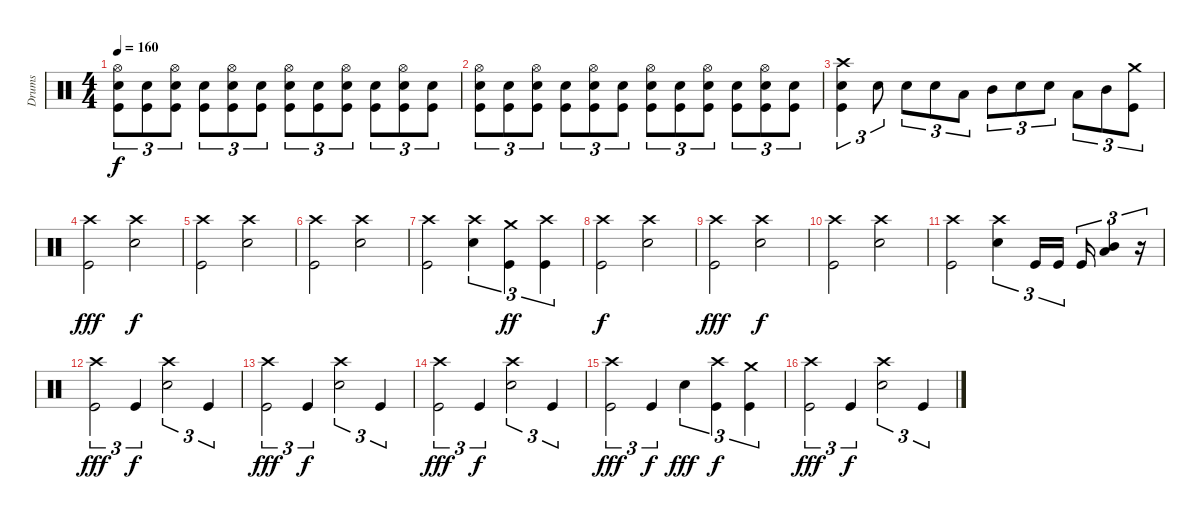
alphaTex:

\track ("Drums" "Drums") {instrument percussion}
\staff {score}
\articulation defaults
\ts (4 4)
\tempo 160
\clef neutral
\ks c
("Hi-Hat (open)" "Electric Snare (hit)" "Kick (hit)").8{tu (3 2) dy f} ("Electric Snare (hit)" "Kick (hit)").8{tu (3 2)} ("Hi-Hat (open)" "Electric Snare (hit)" "Kick (hit)").8{tu (3 2)} ("Electric Snare (hit)" "Kick (hit)").8{tu (3 2)} ("Hi-Hat (open)" "Electric Snare (hit)" "Kick (hit)").8{tu (3 2)} ("Electric Snare (hit)" "Kick (hit)").8{tu (3 2)} ("Hi-Hat (open)" "Electric Snare (hit)" "Kick (hit)").8{tu (3 2)} ("Electric Snare (hit)" "Kick (hit)").8{tu (3 2)} ("Hi-Hat (open)" "Electric Snare (hit)" "Kick (hit)").8{tu (3 2)} ("Electric Snare (hit)" "Kick (hit)").8{tu (3 2)} ("Hi-Hat (open)" "Electric Snare (hit)" "Kick (hit)").8{tu (3 2)} ("Electric Snare (hit)" "Kick (hit)").8{tu (3 2)} |
("Hi-Hat (open)" "Electric Snare (hit)" "Kick (hit)").8{tu (3 2)} ("Electric Snare (hit)" "Kick (hit)").8{tu (3 2)} ("Hi-Hat (open)" "Electric Snare (hit)" "Kick (hit)").8{tu (3 2)} ("Electric Snare (hit)" "Kick (hit)").8{tu (3 2)} ("Hi-Hat (open)" "Electric Snare (hit)" "Kick (hit)").8{tu (3 2)} ("Electric Snare (hit)" "Kick (hit)").8{tu (3 2)} ("Hi-Hat (open)" "Electric Snare (hit)" "Kick (hit)").8{tu (3 2)} ("Electric Snare (hit)" "Kick (hit)").8{tu (3 2)} ("Hi-Hat (open)" "Electric Snare (hit)" "Kick (hit)").8{tu (3 2)} ("Electric Snare (hit)" "Kick (hit)").8{tu (3 2)} ("Hi-Hat (open)" "Electric Snare (hit)" "Kick (hit)").8{tu (3 2)} ("Electric Snare (hit)" "Kick (hit)").8{tu (3 2)} |
("Crash high (hit)" "Kick (hit)" "Electric Snare (hit)").4{tu (3 2)} "Electric Snare (hit)".8{tu (3 2)} "Electric Snare (hit)".8{tu (3 2)} "Electric Snare (hit)".8{tu (3 2)} "Low Tom (hit)".8{tu (3 2)} "Mid Tom (hit)".8{tu (3 2)} "Electric Snare (hit)".8{tu (3 2)} "Electric Snare (hit)".8{tu (3 2)} "Low Tom (hit)".8{tu (3 2)} "Mid Tom (hit)".8{tu (3 2)} ("Crash medium (hit)" "Kick (hit)").8{tu (3 2)} |
("Crash high (hit)" "Kick (hit)").2{dy fff} ("Crash high (hit)" "Electric Snare (hit)").2{dy f} |
("Crash high (hit)" "Kick (hit)").2 ("Crash high (hit)" "Electric Snare (hit)").2 |
("Crash high (hit)" "Kick (hit)").2 ("Crash high (hit)" "Electric Snare (hit)").2 |
("Crash high (hit)" "Kick (hit)").2 ("Crash high (hit)" "Electric Snare (hit)").4{tu (3 2)} ("Crash medium (hit)" "Kick (hit)").4{tu (3 2) dy ff} ("Crash high (hit)" "Kick (hit)").4{tu (3 2)} |
("Crash high (hit)" "Kick (hit)").2{dy f} ("Crash high (hit)" "Electric Snare (hit)").2 |
("Crash high (hit)" "Kick (hit)").2{dy fff} ("Crash high (hit)" "Electric Snare (hit)").2{dy f} |
("Crash high (hit)" "Kick (hit)").2 ("Crash high (hit)" "Electric Snare (hit)").2 |
("Crash high (hit)" "Kick (hit)").2 ("Crash high (hit)" "Electric Snare (hit)").4{tu (3 2)} "Kick (hit)".16{tu (3 2)} "Kick (hit)".16{tu (3 2)} "Kick (hit)".16{tu (3 2)} ("Mid Tom (hit)" "Low Tom (hit)").4{tu (3 2)} r.16{tu (3 2)} |
("Crash high (hit)" "Kick (hit)").2{tu (3 2) dy fff} "Kick (hit)".4{tu (3 2) dy f} ("Crash high (hit)" "Electric Snare (hit)").2{tu (3 2)} "Kick (hit)".4{tu (3 2)} |
("Crash high (hit)" "Kick (hit)").2{tu (3 2) dy fff} "Kick (hit)".4{tu (3 2) dy f} ("Crash high (hit)" "Electric Snare (hit)").2{tu (3 2)} "Kick (hit)".4{tu (3 2)} |
("Crash high (hit)" "Kick (hit)").2{tu (3 2) dy fff} "Kick (hit)".4{tu (3 2) dy f} ("Crash high (hit)" "Electric Snare (hit)").2{tu (3 2)} "Kick (hit)".4{tu (3 2)} |
("Crash high (hit)" "Kick (hit)").2{tu (3 2) dy fff} "Kick (hit)".4{tu (3 2) dy f} "Electric Snare (hit)".4{tu (3 2) dy fff} ("Crash high (hit)" "Kick (hit)").4{tu (3 2) dy f} ("Crash medium (hit)" "Kick (hit)").4{tu (3 2)} |
("Crash high (hit)" "Kick (hit)").2{tu (3 2) dy fff} "Kick (hit)".4{tu (3 2) dy f} ("Crash high (hit)" "Electric Snare (hit)").2{tu (3 2)} "Kick (hit)".4{tu (3 2)}
